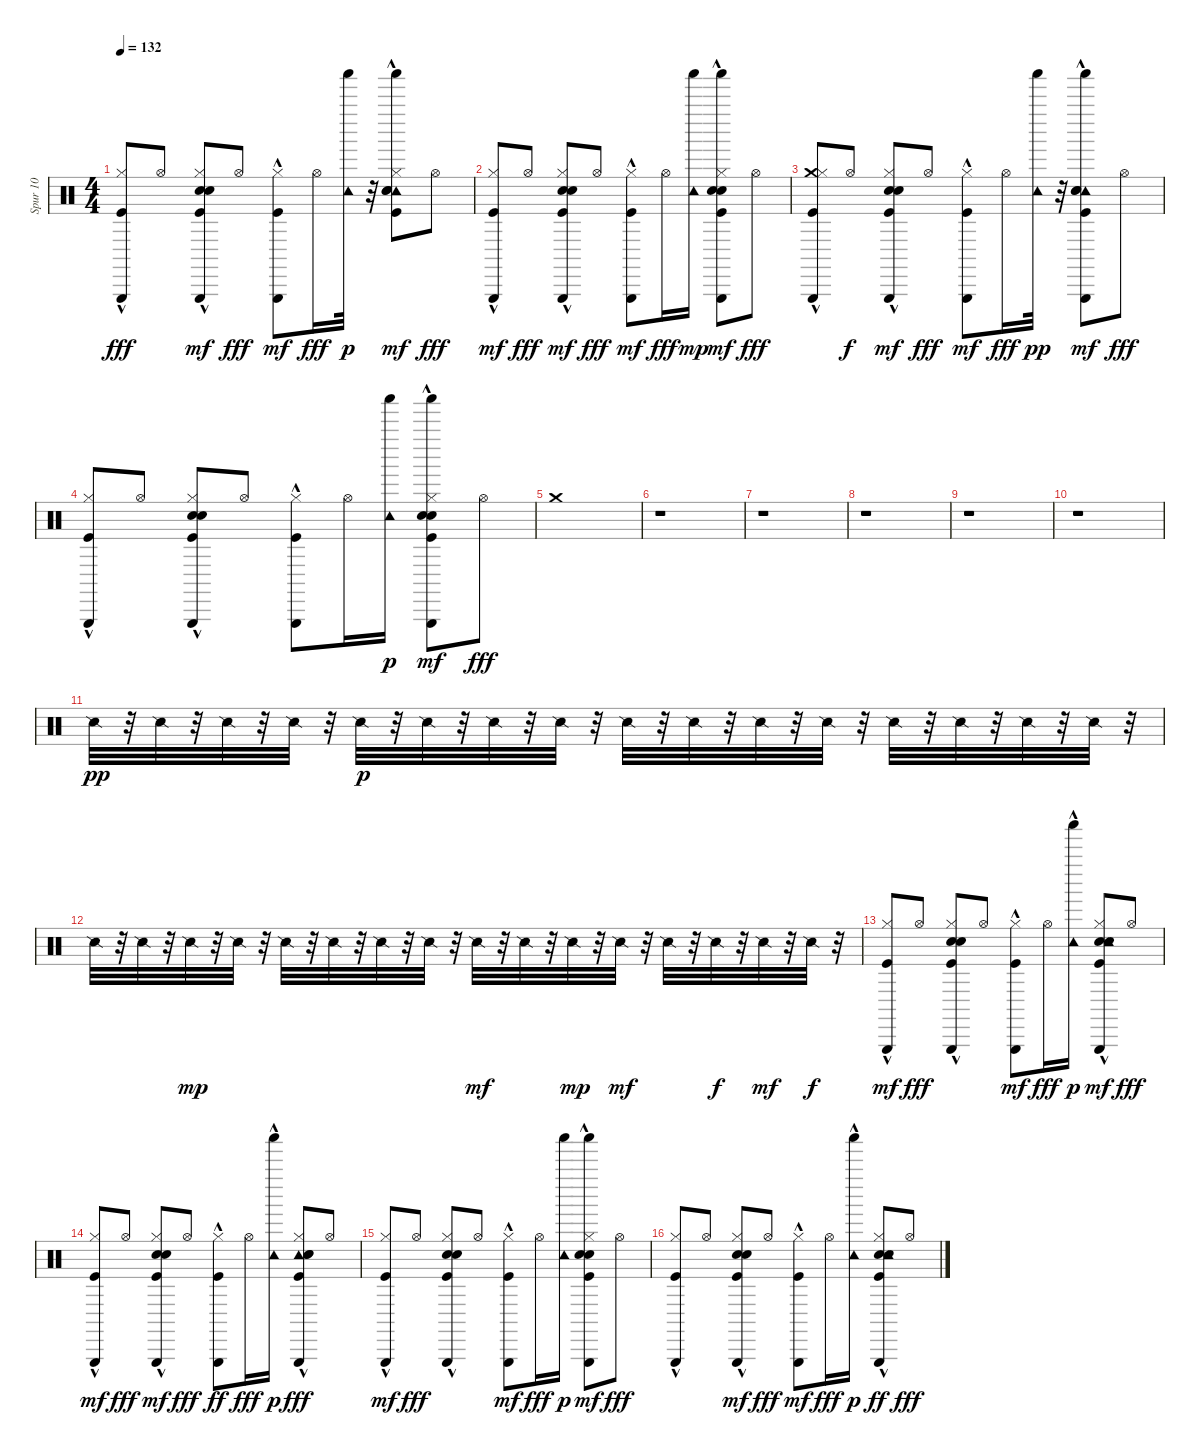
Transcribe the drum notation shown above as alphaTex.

\track ("Spur 10" "Spur 10") {instrument percussion}
\staff {score}
\articulation defaults
\ts (4 4)
\tempo 132
\clef neutral
\ks c
("Triangle (hit)"{hac} "Kick (hit)"{hac} "Hi-Hat (closed)").8{dy fff} "Hi-Hat (open)".8 ("Kick (hit)"{hac} "Hand Clap (hit)"{hac} "Snare (hit) 2"{hac} "Hi-Hat (closed)" "Triangle (hit)"{hac}).8{dy mf} "Hi-Hat (open)".8{dy fff} ("Hi-Hat (closed)" "Kick (hit)"{hac} "Triangle (hit)"{hac}).8{dy mf} "Hi-Hat (open)".16{dy fff} ("Tambourine (hit)" "Shaker (hit)").32{dy p} r.32 ("Shaker (hit)" "Tambourine (hit)"{hac} "Hi-Hat (closed)" "Kick (hit)"{hac} "Hand Clap (hit)"{hac} "Snare (hit) 2"{hac}).8{dy mf} "Hi-Hat (open)".8{dy fff} |
("Hi-Hat (closed)" "Kick (hit)"{hac} "Triangle (hit)"{hac}).8{dy mf} "Hi-Hat (open)".8{dy fff} ("Hi-Hat (closed)" "Kick (hit)"{hac} "Snare (hit) 2"{hac} "Hand Clap (hit)"{hac} "Triangle (hit)"{hac}).8{dy mf} "Hi-Hat (open)".8{dy fff} ("Kick (hit)"{hac} "Hi-Hat (closed)" "Triangle (hit)"{hac}).8{dy mf} "Hi-Hat (open)".16{dy fff} ("Shaker (hit)" "Tambourine (hit)").16{dy mp} ("Shaker (hit)"{hac} "Triangle (hit)"{hac} "Hi-Hat (closed)" "Kick (hit)" "Hand Clap (hit)"{hac} "Snare (hit) 2"{hac}).8{dy mf} "Hi-Hat (open)".8{dy fff} |
("Crash medium (hit)" "Triangle (hit)"{hac} "Hi-Hat (closed)" "Kick (hit)").8 "Hi-Hat (open)".8{dy f} ("Snare (hit) 2"{hac} "Hand Clap (hit)"{hac} "Kick (hit)"{hac} "Hi-Hat (closed)" "Triangle (hit)").8{dy mf} "Hi-Hat (open)".8{dy fff} ("Kick (hit)"{hac} "Hi-Hat (closed)"{hac} "Triangle (hit)"{hac}).8{dy mf} "Hi-Hat (open)".16{dy fff} ("Tambourine (hit)" "Shaker (hit)").32{dy pp} r.32 ("Shaker (hit)" "Tambourine (hit)"{hac} "Triangle (hit)" "Kick (hit)"{hac} "Hand Clap (hit)"{hac} "Snare (hit) 2"{hac}).8{dy mf} "Hi-Hat (open)".8{dy fff} |
("Triangle (hit)"{hac} "Hi-Hat (closed)" "Kick (hit)"{hac}).8 "Hi-Hat (open)".8 ("Triangle (hit)" "Hi-Hat (closed)" "Hand Clap (hit)"{hac} "Snare (hit) 2"{hac} "Kick (hit)"{hac}).8 "Hi-Hat (open)".8 ("Triangle (hit)"{hac} "Hi-Hat (closed)" "Kick (hit)"{hac}).8 "Hi-Hat (open)".16 ("Tambourine (hit)" "Shaker (hit)").16{dy p} ("Shaker (hit)" "Triangle (hit)"{hac} "Hi-Hat (closed)" "Kick (hit)"{hac} "Hand Clap (hit)" "Snare (hit) 2").8{dy mf} "Hi-Hat (open)".8{dy fff} |
"Crash medium (hit)".1 |
r.1 |
r.1 |
r.1 |
r.1 |
r.1 |
"Snare (side stick) 2".32{dy pp} r.32 "Snare (side stick) 2".32 r.32 "Snare (side stick) 2".32 r.32 "Snare (side stick) 2".32 r.32 "Snare (side stick) 2".32{dy p} r.32 "Snare (side stick) 2".32 r.32 "Snare (side stick) 2".32 r.32 "Snare (side stick) 2".32 r.32 "Snare (side stick) 2".32 r.32 "Snare (side stick) 2".32 r.32 "Snare (side stick) 2".32 r.32 "Snare (side stick) 2".32 r.32 "Snare (side stick) 2".32 r.32 "Snare (side stick) 2".32 r.32 "Snare (side stick) 2".32 r.32 "Snare (side stick) 2".32 r.32 |
"Snare (side stick) 2".32 r.32 "Snare (side stick) 2".32 r.32 "Snare (side stick) 2".32{dy mp} r.32 "Snare (side stick) 2".32 r.32 "Snare (side stick) 2".32 r.32 "Snare (side stick) 2".32 r.32 "Snare (side stick) 2".32 r.32 "Snare (side stick) 2".32 r.32 "Snare (side stick) 2".32{dy mf} r.32 "Snare (side stick) 2".32 r.32 "Snare (side stick) 2".32{dy mp} r.32 "Snare (side stick) 2".32{dy mf} r.32 "Snare (side stick) 2".32 r.32 "Snare (side stick) 2".32{dy f} r.32 "Snare (side stick) 2".32{dy mf} r.32 "Snare (side stick) 2".32{dy f} r.32 |
("Kick (hit)"{hac} "Hi-Hat (closed)" "Triangle (hit)"{hac}).8{dy mf} "Hi-Hat (open)".8{dy fff} ("Triangle (hit)"{hac} "Kick (hit)"{hac} "Hand Clap (hit)"{hac} "Snare (hit) 2"{hac} "Hi-Hat (closed)").8 "Hi-Hat (open)".8 ("Kick (hit)"{hac} "Hi-Hat (closed)" "Triangle (hit)"{hac}).8{dy mf} "Hi-Hat (open)".16{dy fff} ("Tambourine (hit)" "Shaker (hit)"{hac}).16{dy p} ("Kick (hit)"{hac} "Snare (hit) 2"{hac} "Hand Clap (hit)"{hac} "Hi-Hat (closed)" "Triangle (hit)"{hac} "Tambourine (hit)"{hac}).8{dy mf} "Hi-Hat (open)".8{dy fff} |
("Kick (hit)"{hac} "Hi-Hat (closed)" "Triangle (hit)"{hac}).8{dy mf} "Hi-Hat (open)".8{dy fff} ("Triangle (hit)"{hac} "Hi-Hat (closed)" "Kick (hit)"{hac} "Hand Clap (hit)"{hac} "Snare (hit) 2"{hac}).8{dy mf} "Hi-Hat (open)".8{dy fff} ("Triangle (hit)"{hac} "Kick (hit)"{hac} "Hi-Hat (closed)").8{dy ff} "Hi-Hat (open)".16{dy fff} ("Tambourine (hit)" "Shaker (hit)"{hac}).16{dy p} ("Tambourine (hit)"{hac} "Triangle (hit)"{hac} "Kick (hit)"{hac} "Snare (hit) 2"{hac} "Hand Clap (hit)"{hac} "Hi-Hat (closed)").8{dy fff} "Hi-Hat (open)".8 |
("Kick (hit)"{hac} "Hi-Hat (closed)" "Triangle (hit)"{hac}).8{dy mf} "Hi-Hat (open)".8{dy fff} ("Triangle (hit)"{hac} "Hi-Hat (closed)" "Hand Clap (hit)"{hac} "Snare (hit) 2"{hac} "Kick (hit)"{hac}).8 "Hi-Hat (open)".8 ("Hi-Hat (closed)" "Kick (hit)"{hac} "Triangle (hit)"{hac}).8{dy mf} "Hi-Hat (open)".16{dy fff} ("Shaker (hit)" "Tambourine (hit)").16{dy p} ("Shaker (hit)" "Triangle (hit)"{hac} "Hi-Hat (closed)" "Kick (hit)"{hac} "Hand Clap (hit)"{hac} "Snare (hit) 2"{hac}).8{dy mf} "Hi-Hat (open)".8{dy fff} |
("Triangle (hit)"{hac} "Hi-Hat (closed)" "Kick (hit)"{hac}).8 "Hi-Hat (open)".8 ("Hi-Hat (closed)" "Kick (hit)"{hac} "Snare (hit) 2"{hac} "Hand Clap (hit)"{hac} "Triangle (hit)"{hac}).8{dy mf} "Hi-Hat (open)".8{dy fff} ("Kick (hit)"{hac} "Hi-Hat (closed)" "Triangle (hit)"{hac}).8{dy mf} "Hi-Hat (open)".16{dy fff} ("Tambourine (hit)" "Shaker (hit)"{hac}).16{dy p} ("Triangle (hit)"{hac} "Hi-Hat (closed)" "Hand Clap (hit)"{hac} "Snare (hit) 2"{hac} "Kick (hit)"{hac} "Tambourine (hit)").8{dy ff} "Hi-Hat (open)".8{dy fff}
